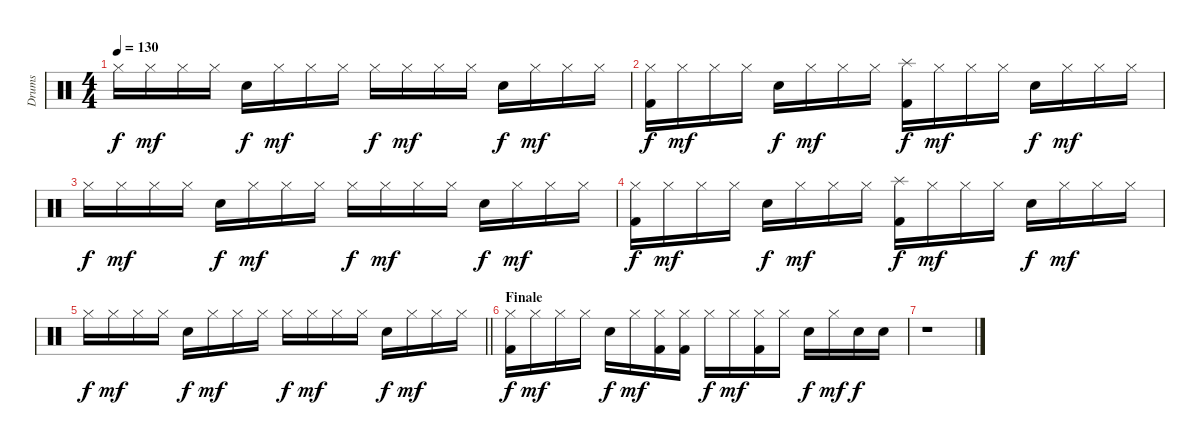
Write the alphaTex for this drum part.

\track ("Drums" "Drums") {instrument percussion}
\staff {score}
\articulation defaults
\ts (4 4)
\tempo 130
\clef neutral
\ks c "Hi-Hat (closed)".16{dy f} "Hi-Hat (closed)".16{dy mf} "Hi-Hat (closed)".16 "Hi-Hat (closed)".16 "Snare (hit) 2".16{dy f} "Hi-Hat (closed)".16{dy mf} "Hi-Hat (closed)".16 "Hi-Hat (closed)".16 "Hi-Hat (closed)".16{dy f} "Hi-Hat (closed)".16{dy mf} "Hi-Hat (closed)".16 "Hi-Hat (closed)".16 "Snare (hit) 2".16{dy f} "Hi-Hat (closed)".16{dy mf} "Hi-Hat (closed)".16 "Hi-Hat (closed)".16
|
("Hi-Hat (closed)" "Kick (hit) 2").16{dy f} "Hi-Hat (closed)".16{dy mf} "Hi-Hat (closed)".16 "Hi-Hat (closed)".16 "Snare (hit) 2".16{dy f} "Hi-Hat (closed)".16{dy mf} "Hi-Hat (closed)".16 "Hi-Hat (closed)".16 ("Splash (hit)" "Kick (hit) 2").16{dy f} "Hi-Hat (closed)".16{dy mf} "Hi-Hat (closed)".16 "Hi-Hat (closed)".16 "Snare (hit) 2".16{dy f} "Hi-Hat (closed)".16{dy mf} "Hi-Hat (closed)".16 "Hi-Hat (closed)".16 |
"Hi-Hat (closed)".16{dy f} "Hi-Hat (closed)".16{dy mf} "Hi-Hat (closed)".16 "Hi-Hat (closed)".16 "Snare (hit) 2".16{dy f} "Hi-Hat (closed)".16{dy mf} "Hi-Hat (closed)".16 "Hi-Hat (closed)".16 "Hi-Hat (closed)".16{dy f} "Hi-Hat (closed)".16{dy mf} "Hi-Hat (closed)".16 "Hi-Hat (closed)".16 "Snare (hit) 2".16{dy f} "Hi-Hat (closed)".16{dy mf} "Hi-Hat (closed)".16 "Hi-Hat (closed)".16 |
("Hi-Hat (closed)" "Kick (hit) 2").16{dy f} "Hi-Hat (closed)".16{dy mf} "Hi-Hat (closed)".16 "Hi-Hat (closed)".16 "Snare (hit) 2".16{dy f} "Hi-Hat (closed)".16{dy mf} "Hi-Hat (closed)".16 "Hi-Hat (closed)".16 ("Splash (hit)" "Kick (hit) 2").16{dy f} "Hi-Hat (closed)".16{dy mf} "Hi-Hat (closed)".16 "Hi-Hat (closed)".16 "Snare (hit) 2".16{dy f} "Hi-Hat (closed)".16{dy mf} "Hi-Hat (closed)".16 "Hi-Hat (closed)".16 |
\barLineRight lightlight "Hi-Hat (closed)".16{dy f} "Hi-Hat (closed)".16{dy mf} "Hi-Hat (closed)".16 "Hi-Hat (closed)".16 "Snare (hit) 2".16{dy f} "Hi-Hat (closed)".16{dy mf} "Hi-Hat (closed)".16 "Hi-Hat (closed)".16 "Hi-Hat (closed)".16{dy f} "Hi-Hat (closed)".16{dy mf} "Hi-Hat (closed)".16 "Hi-Hat (closed)".16 "Snare (hit) 2".16{dy f} "Hi-Hat (closed)".16{dy mf} "Hi-Hat (closed)".16 "Hi-Hat (closed)".16
|
\section ("" "Finale")
("Hi-Hat (closed)" "Kick (hit) 2").16{dy f} "Hi-Hat (closed)".16{dy mf} "Hi-Hat (closed)".16 "Hi-Hat (closed)".16 "Snare (hit) 2".16{dy f} "Hi-Hat (closed)".16{dy mf} ("Hi-Hat (closed)" "Kick (hit) 2").16 ("Hi-Hat (closed)" "Kick (hit) 2").16 "Hi-Hat (closed)".16{dy f} "Hi-Hat (closed)".16{dy mf} ("Hi-Hat (closed)" "Kick (hit) 2").16 "Hi-Hat (closed)".16 "Snare (hit) 2".16{dy f} "Hi-Hat (closed)".16{dy mf} "Snare (hit) 2".16{dy f} "Snare (hit) 2".16 |
r.1
